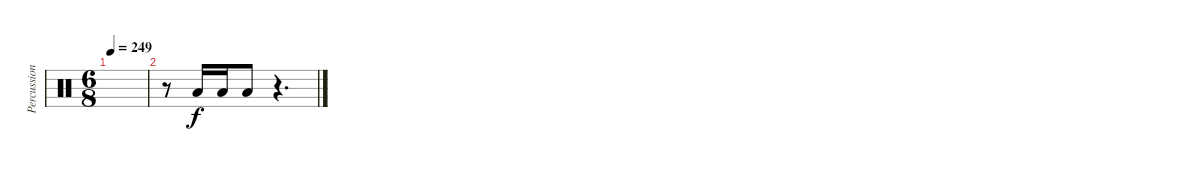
\track ("Percussion" "Percussion") {instrument percussion}
\staff {score}
\articulation defaults
\ts (6 8)
\tempo 249
\clef neutral
\ks c
|
r.8 "Low Tom (hit)".16 "Low Tom (hit)".16 "Low Tom (hit)".8 r.4{d}
